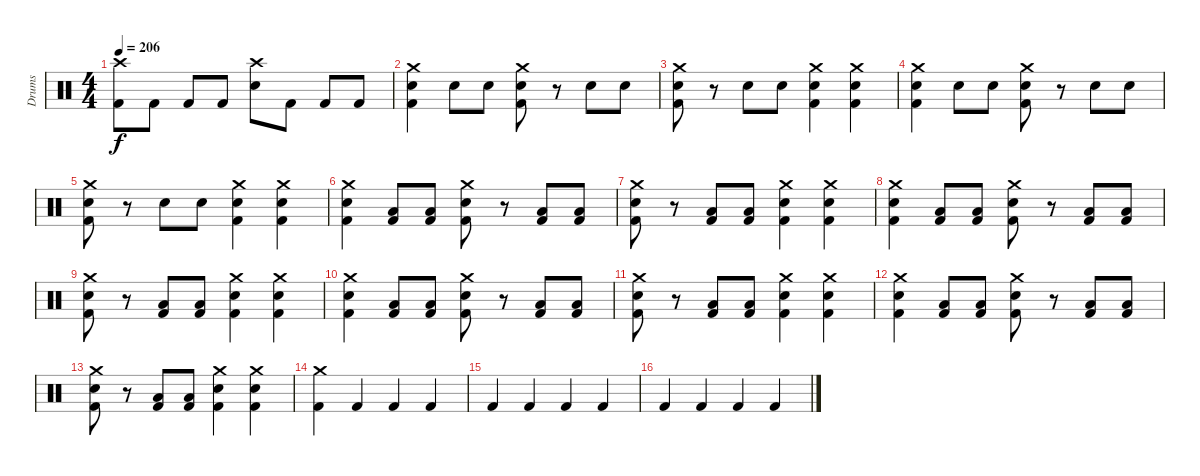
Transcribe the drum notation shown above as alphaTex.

\track ("Drums" "Drums") {instrument percussion}
\staff {score}
\articulation defaults
\ts (4 4)
\tempo 206
\clef neutral
\ks c
("Crash high (hit)" "Kick (hit) 2").8{dy f} "Kick (hit) 2".8 "Kick (hit) 2".8 "Kick (hit) 2".8 ("Crash high (hit)" "Snare (hit) 2").8 "Kick (hit) 2".8 "Kick (hit) 2".8 "Kick (hit) 2".8 |
("Crash medium (hit)" "Snare (hit) 2" "Kick (hit) 2").4 "Snare (hit) 2".8 "Snare (hit) 2".8 ("Crash medium (hit)" "Snare (hit) 2" "Kick (hit) 2").8 r.8 "Snare (hit) 2".8 "Snare (hit) 2".8 |
("Crash medium (hit)" "Snare (hit) 2" "Kick (hit) 2").8 r.8 "Snare (hit) 2".8 "Snare (hit) 2".8 ("Crash medium (hit)" "Snare (hit) 2" "Kick (hit) 2").4 ("Crash medium (hit)" "Snare (hit) 2" "Kick (hit) 2").4 |
("Crash medium (hit)" "Snare (hit) 2" "Kick (hit) 2").4 "Snare (hit) 2".8 "Snare (hit) 2".8 ("Crash medium (hit)" "Snare (hit) 2" "Kick (hit) 2").8 r.8 "Snare (hit) 2".8 "Snare (hit) 2".8 |
("Crash medium (hit)" "Snare (hit) 2" "Kick (hit) 2").8 r.8 "Snare (hit) 2".8 "Snare (hit) 2".8 ("Crash medium (hit)" "Snare (hit) 2" "Kick (hit) 2").4 ("Crash medium (hit)" "Snare (hit) 2" "Kick (hit) 2").4 |
("Crash medium (hit)" "Snare (hit) 2" "Kick (hit) 2").4 ("Low Floor Tom (hit)" "Kick (hit) 2").8 ("Low Floor Tom (hit)" "Kick (hit) 2").8 ("Crash medium (hit)" "Snare (hit) 2" "Kick (hit) 2").8 r.8 ("Low Floor Tom (hit)" "Kick (hit) 2").8 ("Low Floor Tom (hit)" "Kick (hit) 2").8 |
("Crash medium (hit)" "Snare (hit) 2" "Kick (hit) 2").8 r.8 ("Low Floor Tom (hit)" "Kick (hit) 2").8 ("Low Floor Tom (hit)" "Kick (hit) 2").8 ("Crash medium (hit)" "Snare (hit) 2" "Kick (hit) 2").4 ("Crash medium (hit)" "Snare (hit) 2" "Kick (hit) 2").4 |
("Crash medium (hit)" "Snare (hit) 2" "Kick (hit) 2").4 ("Low Floor Tom (hit)" "Kick (hit) 2").8 ("Low Floor Tom (hit)" "Kick (hit) 2").8 ("Crash medium (hit)" "Snare (hit) 2" "Kick (hit) 2").8 r.8 ("Low Floor Tom (hit)" "Kick (hit) 2").8 ("Low Floor Tom (hit)" "Kick (hit) 2").8 |
("Crash medium (hit)" "Snare (hit) 2" "Kick (hit) 2").8 r.8 ("Low Floor Tom (hit)" "Kick (hit) 2").8 ("Low Floor Tom (hit)" "Kick (hit) 2").8 ("Crash medium (hit)" "Snare (hit) 2" "Kick (hit) 2").4 ("Crash medium (hit)" "Snare (hit) 2" "Kick (hit) 2").4 |
("Crash medium (hit)" "Snare (hit) 2" "Kick (hit) 2").4 ("Low Floor Tom (hit)" "Kick (hit) 2").8 ("Low Floor Tom (hit)" "Kick (hit) 2").8 ("Crash medium (hit)" "Snare (hit) 2" "Kick (hit) 2").8 r.8 ("Low Floor Tom (hit)" "Kick (hit) 2").8 ("Low Floor Tom (hit)" "Kick (hit) 2").8 |
("Crash medium (hit)" "Snare (hit) 2" "Kick (hit) 2").8 r.8 ("Low Floor Tom (hit)" "Kick (hit) 2").8 ("Low Floor Tom (hit)" "Kick (hit) 2").8 ("Crash medium (hit)" "Snare (hit) 2" "Kick (hit) 2").4 ("Crash medium (hit)" "Snare (hit) 2" "Kick (hit) 2").4 |
("Crash medium (hit)" "Snare (hit) 2" "Kick (hit) 2").4 ("Low Floor Tom (hit)" "Kick (hit) 2").8 ("Low Floor Tom (hit)" "Kick (hit) 2").8 ("Crash medium (hit)" "Snare (hit) 2" "Kick (hit) 2").8 r.8 ("Low Floor Tom (hit)" "Kick (hit) 2").8 ("Low Floor Tom (hit)" "Kick (hit) 2").8 |
("Crash medium (hit)" "Snare (hit) 2" "Kick (hit) 2").8 r.8 ("Low Floor Tom (hit)" "Kick (hit) 2").8 ("Low Floor Tom (hit)" "Kick (hit) 2").8 ("Crash medium (hit)" "Snare (hit) 2" "Kick (hit) 2").4 ("Crash medium (hit)" "Snare (hit) 2" "Kick (hit) 2").4 |
("Crash medium (hit)" "Kick (hit) 2").4 "Kick (hit) 2".4 "Kick (hit) 2".4 "Kick (hit) 2".4 |
"Kick (hit) 2".4 "Kick (hit) 2".4 "Kick (hit) 2".4 "Kick (hit) 2".4 |
"Kick (hit) 2".4 "Kick (hit) 2".4 "Kick (hit) 2".4 "Kick (hit) 2".4
